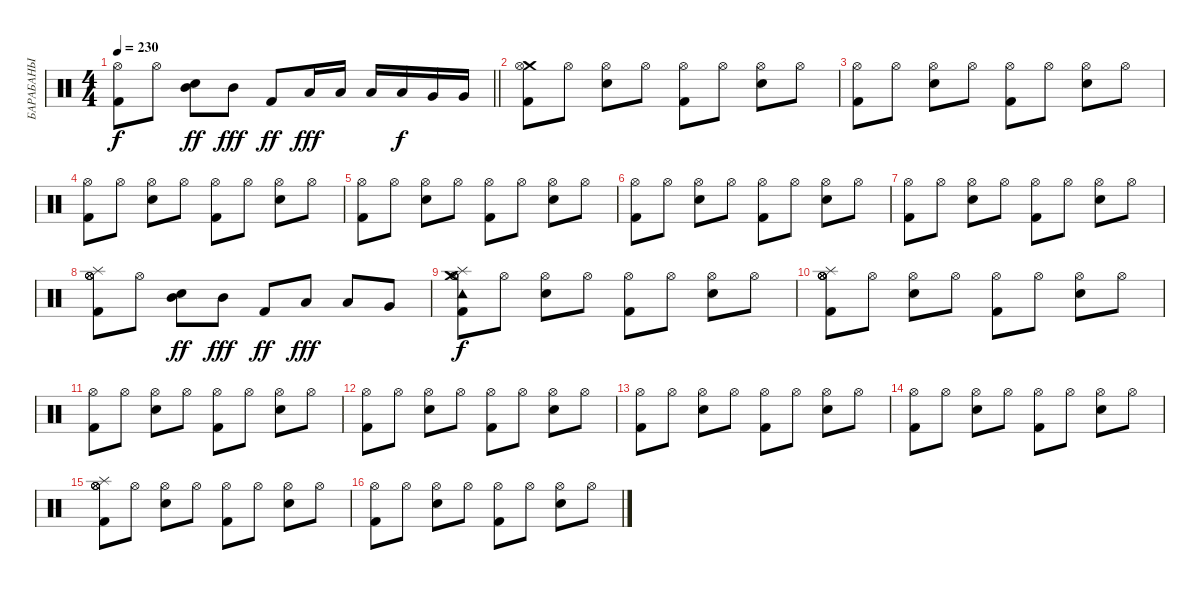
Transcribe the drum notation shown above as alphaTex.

\track ("БАРАБАНЫ" "БАРАБАНЫ") {instrument percussion}
\staff {score}
\articulation defaults
\ts (4 4)
\tempo 230
\clef neutral
\barLineRight lightlight
\ks c
("Hi-Hat (open)" "Kick (hit) 2").8{dy f} "Hi-Hat (open)".8 ("Mid Tom (hit)" "Electric Snare (hit)").8{dy ff} "Mid Tom (hit)".8{dy fff} "Kick (hit) 2".8{dy ff} "Low Tom (hit)".16{dy fff} "Low Tom (hit)".16 "Low Tom (hit)".16 "Low Tom (hit)".16{dy f} "Very Low Tom (hit)".16 "Very Low Tom (hit)".16 |
("Crash medium (hit)" "Hi-Hat (open)" "Kick (hit) 2").8 "Hi-Hat (open)".8 ("Hi-Hat (open)" "Electric Snare (hit)").8 "Hi-Hat (open)".8 ("Hi-Hat (open)" "Kick (hit) 2").8 "Hi-Hat (open)".8 ("Hi-Hat (open)" "Electric Snare (hit)").8 "Hi-Hat (open)".8 |
("Hi-Hat (open)" "Kick (hit) 2").8 "Hi-Hat (open)".8 ("Hi-Hat (open)" "Electric Snare (hit)").8 "Hi-Hat (open)".8 ("Hi-Hat (open)" "Kick (hit) 2").8 "Hi-Hat (open)".8 ("Hi-Hat (open)" "Electric Snare (hit)").8 "Hi-Hat (open)".8 |
("Hi-Hat (open)" "Kick (hit) 2").8 "Hi-Hat (open)".8 ("Hi-Hat (open)" "Electric Snare (hit)").8 "Hi-Hat (open)".8 ("Hi-Hat (open)" "Kick (hit) 2").8 "Hi-Hat (open)".8 ("Hi-Hat (open)" "Electric Snare (hit)").8 "Hi-Hat (open)".8 |
("Hi-Hat (open)" "Kick (hit) 2").8 "Hi-Hat (open)".8 ("Hi-Hat (open)" "Electric Snare (hit)").8 "Hi-Hat (open)".8 ("Hi-Hat (open)" "Kick (hit) 2").8 "Hi-Hat (open)".8 ("Hi-Hat (open)" "Electric Snare (hit)").8 "Hi-Hat (open)".8 |
("Hi-Hat (open)" "Kick (hit) 2").8 "Hi-Hat (open)".8 ("Hi-Hat (open)" "Electric Snare (hit)").8 "Hi-Hat (open)".8 ("Hi-Hat (open)" "Kick (hit) 2").8 "Hi-Hat (open)".8 ("Hi-Hat (open)" "Electric Snare (hit)").8 "Hi-Hat (open)".8 |
("Hi-Hat (open)" "Kick (hit) 2").8 "Hi-Hat (open)".8 ("Hi-Hat (open)" "Electric Snare (hit)").8 "Hi-Hat (open)".8 ("Hi-Hat (open)" "Kick (hit) 2").8 "Hi-Hat (open)".8 ("Hi-Hat (open)" "Electric Snare (hit)").8 "Hi-Hat (open)".8 |
("Hi-Hat (open)" "Hi-Hat (open)" "Splash (hit)" "Hi-Hat (open)" "Kick (hit) 2").8 "Hi-Hat (open)".8 ("Mid Tom (hit)" "Electric Snare (hit)").8{dy ff} "Mid Tom (hit)".8{dy fff} "Kick (hit) 2".8{dy ff} "Low Tom (hit)".8{dy fff} "Low Tom (hit)".8 "Very Low Tom (hit)".8 |
("Crash medium (hit)" "Hi-Hat (open)" "Splash (hit)" "Tambourine (hit)" "Hi-Hat (open)" "Kick (hit) 2").8{dy f} "Hi-Hat (open)".8 ("Hi-Hat (open)" "Electric Snare (hit)").8 "Hi-Hat (open)".8 ("Hi-Hat (open)" "Kick (hit) 2").8 "Hi-Hat (open)".8 ("Hi-Hat (open)" "Electric Snare (hit)").8 "Hi-Hat (open)".8 |
("Hi-Hat (open)" "Hi-Hat (open)" "Splash (hit)" "Hi-Hat (open)" "Hi-Hat (open)" "Kick (hit) 2").8 "Hi-Hat (open)".8 ("Hi-Hat (open)" "Electric Snare (hit)").8 "Hi-Hat (open)".8 ("Hi-Hat (open)" "Kick (hit) 2").8 "Hi-Hat (open)".8 ("Hi-Hat (open)" "Electric Snare (hit)").8 "Hi-Hat (open)".8 |
("Hi-Hat (open)" "Kick (hit) 2").8 "Hi-Hat (open)".8 ("Hi-Hat (open)" "Electric Snare (hit)").8 "Hi-Hat (open)".8 ("Hi-Hat (open)" "Kick (hit) 2").8 "Hi-Hat (open)".8 ("Hi-Hat (open)" "Electric Snare (hit)").8 "Hi-Hat (open)".8 |
("Hi-Hat (open)" "Kick (hit) 2").8 "Hi-Hat (open)".8 ("Hi-Hat (open)" "Electric Snare (hit)").8 "Hi-Hat (open)".8 ("Hi-Hat (open)" "Kick (hit) 2").8 "Hi-Hat (open)".8 ("Hi-Hat (open)" "Electric Snare (hit)").8 "Hi-Hat (open)".8 |
("Hi-Hat (open)" "Kick (hit) 2").8 "Hi-Hat (open)".8 ("Hi-Hat (open)" "Electric Snare (hit)").8 "Hi-Hat (open)".8 ("Hi-Hat (open)" "Kick (hit) 2").8 "Hi-Hat (open)".8 ("Hi-Hat (open)" "Electric Snare (hit)").8 "Hi-Hat (open)".8 |
("Hi-Hat (open)" "Kick (hit) 2").8 "Hi-Hat (open)".8 ("Hi-Hat (open)" "Electric Snare (hit)").8 "Hi-Hat (open)".8 ("Hi-Hat (open)" "Kick (hit) 2").8 "Hi-Hat (open)".8 ("Hi-Hat (open)" "Electric Snare (hit)").8 "Hi-Hat (open)".8 |
("Hi-Hat (open)" "Hi-Hat (open)" "Splash (hit)" "Hi-Hat (open)" "Kick (hit) 2").8 "Hi-Hat (open)".8 ("Hi-Hat (open)" "Electric Snare (hit)").8 "Hi-Hat (open)".8 ("Hi-Hat (open)" "Kick (hit) 2").8 "Hi-Hat (open)".8 ("Hi-Hat (open)" "Electric Snare (hit)").8 "Hi-Hat (open)".8 |
("Hi-Hat (open)" "Kick (hit) 2").8 "Hi-Hat (open)".8 ("Hi-Hat (open)" "Electric Snare (hit)").8 "Hi-Hat (open)".8 ("Hi-Hat (open)" "Kick (hit) 2").8 "Hi-Hat (open)".8 ("Hi-Hat (open)" "Electric Snare (hit)").8 "Hi-Hat (open)".8
